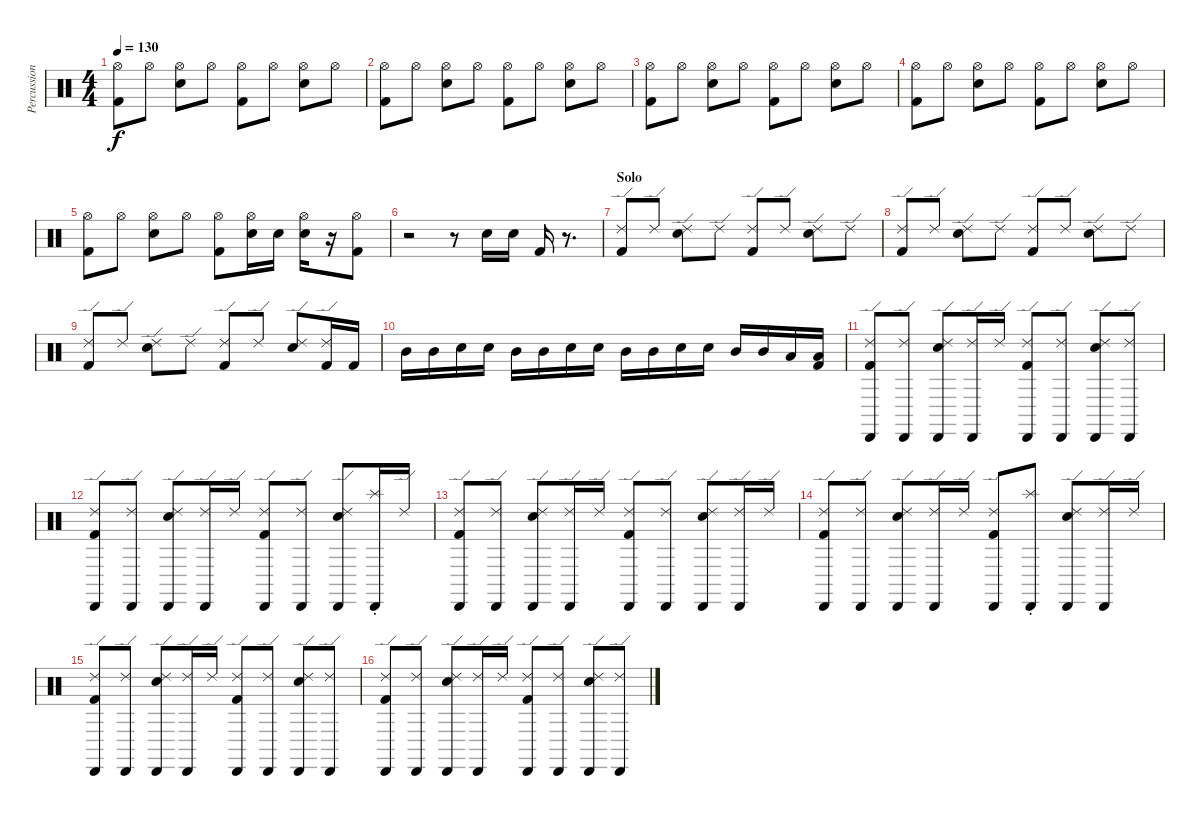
\track ("Percussion" "Percussion") {instrument percussion}
\staff {score}
\articulation defaults
\ts (4 4)
\tempo 130
\clef neutral
\ks c
("Hi-Hat (open)" "Kick (hit) 2").8{dy f} "Hi-Hat (open)".8 ("Hi-Hat (open)" "Snare (hit) 2").8 "Hi-Hat (open)".8 ("Hi-Hat (open)" "Kick (hit) 2").8 "Hi-Hat (open)".8 ("Hi-Hat (open)" "Snare (hit) 2").8 "Hi-Hat (open)".8 |
("Hi-Hat (open)" "Kick (hit) 2").8 "Hi-Hat (open)".8 ("Hi-Hat (open)" "Snare (hit) 2").8 "Hi-Hat (open)".8 ("Hi-Hat (open)" "Kick (hit) 2").8 "Hi-Hat (open)".8 ("Hi-Hat (open)" "Snare (hit) 2").8 "Hi-Hat (open)".8 |
("Hi-Hat (open)" "Kick (hit) 2").8 "Hi-Hat (open)".8 ("Hi-Hat (open)" "Snare (hit) 2").8 "Hi-Hat (open)".8 ("Hi-Hat (open)" "Kick (hit) 2").8 "Hi-Hat (open)".8 ("Hi-Hat (open)" "Snare (hit) 2").8 "Hi-Hat (open)".8 |
("Hi-Hat (open)" "Kick (hit) 2").8 "Hi-Hat (open)".8 ("Hi-Hat (open)" "Snare (hit) 2").8 "Hi-Hat (open)".8 ("Hi-Hat (open)" "Kick (hit) 2").8 "Hi-Hat (open)".8 ("Hi-Hat (open)" "Snare (hit) 2").8 "Hi-Hat (open)".8 |
("Hi-Hat (open)" "Kick (hit) 2").8 "Hi-Hat (open)".8 ("Hi-Hat (open)" "Snare (hit) 2").8 "Hi-Hat (open)".8 ("Hi-Hat (open)" "Kick (hit) 2").8 ("Hi-Hat (open)" "Snare (hit) 2").16 "Snare (hit) 2".16 ("Hi-Hat (open)" "Snare (hit) 2").16 r.16 ("Hi-Hat (open)" "Kick (hit) 2").8 |
r.2 r.8 "Snare (hit) 2".16 "Snare (hit) 2".16 "Kick (hit) 2".16 r.8{d} |
\section ("" "Solo")
("Ride (edge) 2" "Kick (hit) 2").8 "Ride (edge) 2".8 ("Ride (edge) 2" "Snare (hit) 2").8 "Ride (edge) 2".8 ("Ride (edge) 2" "Kick (hit) 2").8 "Ride (edge) 2".8 ("Ride (edge) 2" "Snare (hit) 2").8 "Ride (edge) 2".8 |
("Ride (edge) 2" "Kick (hit) 2").8 "Ride (edge) 2".8 ("Ride (edge) 2" "Snare (hit) 2").8 "Ride (edge) 2".8 ("Ride (edge) 2" "Kick (hit) 2").8 "Ride (edge) 2".8 ("Ride (edge) 2" "Snare (hit) 2").8 "Ride (edge) 2".8 |
("Ride (edge) 2" "Kick (hit) 2").8 "Ride (edge) 2".8 ("Ride (edge) 2" "Snare (hit) 2").8 "Ride (edge) 2".8 ("Ride (edge) 2" "Kick (hit) 2").8 "Ride (edge) 2".8 ("Ride (edge) 2" "Snare (hit) 2").8 ("Ride (edge) 2" "Kick (hit) 2").16 "Kick (hit) 2".16 |
"Mid Tom (hit)".16 "Mid Tom (hit)".16 "Snare (hit) 2".16 "Snare (hit) 2".16 "Mid Tom (hit)".16 "Mid Tom (hit)".16 "Snare (hit) 2".16 "Snare (hit) 2".16 "Mid Tom (hit)".16 "Mid Tom (hit)".16 "Snare (hit) 2".16 "Snare (hit) 2".16 "Mid Tom (hit)".16 "Mid Tom (hit)".16 "Low Tom (hit)".16 ("Low Tom (hit)" "Kick (hit) 2").16 |
("Cabasa (hit)" "Ride (edge) 2" "Kick (hit) 2").8 ("Cabasa (hit)" "Ride (edge) 2").8 ("Cabasa (hit)" "Ride (edge) 2" "Snare (hit) 2").8 ("Cabasa (hit)" "Ride (edge) 2").16 "Ride (edge) 2".16 ("Cabasa (hit)" "Ride (edge) 2" "Kick (hit) 2").8 ("Cabasa (hit)" "Ride (edge) 2").8 ("Cabasa (hit)" "Ride (edge) 2" "Snare (hit) 2").8 ("Cabasa (hit)" "Ride (edge) 2").8 |
("Cabasa (hit)" "Ride (edge) 2" "Kick (hit) 2").8 ("Cabasa (hit)" "Ride (edge) 2").8 ("Cabasa (hit)" "Ride (edge) 2" "Snare (hit) 2").8 ("Cabasa (hit)" "Ride (edge) 2").16 "Ride (edge) 2".16 ("Cabasa (hit)" "Ride (edge) 2" "Kick (hit) 2").8 ("Cabasa (hit)" "Ride (edge) 2").8 ("Cabasa (hit)" "Ride (edge) 2" "Snare (hit) 2").8 ("Cabasa (hit)" "Splash (choke)").16 "Ride (edge) 2".16 |
("Cabasa (hit)" "Ride (edge) 2" "Kick (hit) 2").8 ("Cabasa (hit)" "Ride (edge) 2").8 ("Cabasa (hit)" "Ride (edge) 2" "Snare (hit) 2").8 ("Cabasa (hit)" "Ride (edge) 2").16 "Ride (edge) 2".16 ("Cabasa (hit)" "Ride (edge) 2" "Kick (hit) 2").8 ("Cabasa (hit)" "Ride (edge) 2").8 ("Cabasa (hit)" "Ride (edge) 2" "Snare (hit) 2").8 ("Cabasa (hit)" "Ride (edge) 2").16 "Ride (edge) 2".16 |
("Cabasa (hit)" "Ride (edge) 2" "Kick (hit) 2").8 ("Cabasa (hit)" "Ride (edge) 2").8 ("Cabasa (hit)" "Ride (edge) 2" "Snare (hit) 2").8 ("Cabasa (hit)" "Ride (edge) 2").16 "Ride (edge) 2".16 ("Cabasa (hit)" "Ride (edge) 2" "Kick (hit) 2").8 ("Cabasa (hit)" "Splash (choke)").8 ("Cabasa (hit)" "Ride (edge) 2" "Snare (hit) 2").8 ("Cabasa (hit)" "Ride (edge) 2").16 "Ride (edge) 2".16 |
("Cabasa (hit)" "Ride (edge) 2" "Kick (hit) 2").8 ("Cabasa (hit)" "Ride (edge) 2").8 ("Cabasa (hit)" "Ride (edge) 2" "Snare (hit) 2").8 ("Cabasa (hit)" "Ride (edge) 2").16 "Ride (edge) 2".16 ("Cabasa (hit)" "Ride (edge) 2" "Kick (hit) 2").8 ("Cabasa (hit)" "Ride (edge) 2").8 ("Cabasa (hit)" "Ride (edge) 2" "Snare (hit) 2").8 ("Cabasa (hit)" "Ride (edge) 2").8 |
("Cabasa (hit)" "Ride (edge) 2" "Kick (hit) 2").8 ("Cabasa (hit)" "Ride (edge) 2").8 ("Cabasa (hit)" "Ride (edge) 2" "Snare (hit) 2").8 ("Cabasa (hit)" "Ride (edge) 2").16 "Ride (edge) 2".16 ("Cabasa (hit)" "Ride (edge) 2" "Kick (hit) 2").8 ("Cabasa (hit)" "Ride (edge) 2").8 ("Cabasa (hit)" "Ride (edge) 2" "Snare (hit) 2").8 ("Cabasa (hit)" "Ride (edge) 2").8
